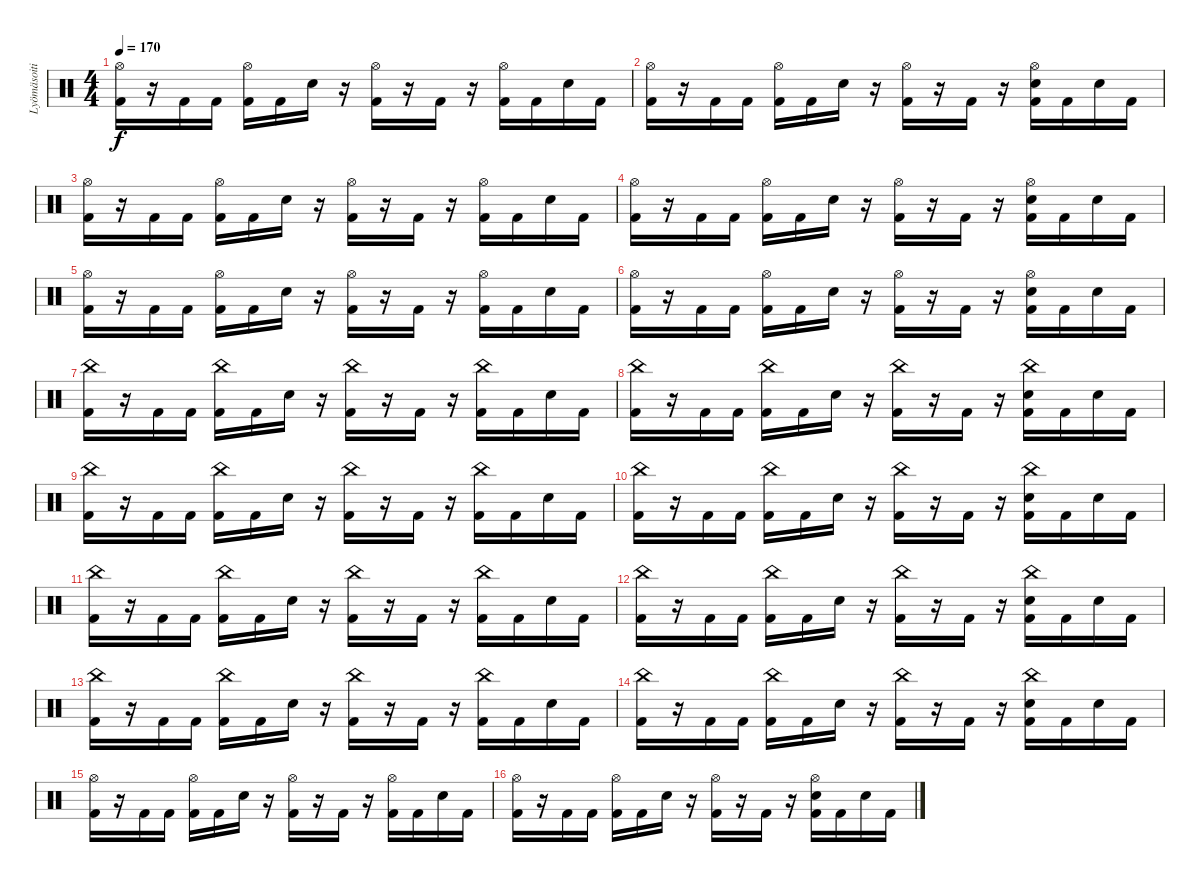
\track ("Lyömäsoitin" "Lyömäsoiti") {instrument percussion}
\staff {score}
\articulation defaults
\ts (4 4)
\tempo 170
\clef neutral
\ks c
("Hi-Hat (open)" "Kick (hit) 2").16{dy f} r.16 "Kick (hit) 2".16 "Kick (hit) 2".16 ("Hi-Hat (open)" "Kick (hit) 2").16 "Kick (hit) 2".16 "Electric Snare (hit)".16 r.16 ("Hi-Hat (open)" "Kick (hit) 2").16 r.16 "Kick (hit) 2".16 r.16 ("Hi-Hat (open)" "Kick (hit) 2").16 "Kick (hit) 2".16 "Electric Snare (hit)".16 "Kick (hit) 2".16 |
("Hi-Hat (open)" "Kick (hit) 2").16 r.16 "Kick (hit) 2".16 "Kick (hit) 2".16 ("Hi-Hat (open)" "Kick (hit) 2").16 "Kick (hit) 2".16 "Electric Snare (hit)".16 r.16 ("Hi-Hat (open)" "Kick (hit) 2").16 r.16 "Kick (hit) 2".16 r.16 ("Hi-Hat (open)" "Electric Snare (hit)" "Kick (hit) 2").16 "Kick (hit) 2".16 "Electric Snare (hit)".16 "Kick (hit) 2".16 |
("Hi-Hat (open)" "Kick (hit) 2").16 r.16 "Kick (hit) 2".16 "Kick (hit) 2".16 ("Hi-Hat (open)" "Kick (hit) 2").16 "Kick (hit) 2".16 "Electric Snare (hit)".16 r.16 ("Hi-Hat (open)" "Kick (hit) 2").16 r.16 "Kick (hit) 2".16 r.16 ("Hi-Hat (open)" "Kick (hit) 2").16 "Kick (hit) 2".16 "Electric Snare (hit)".16 "Kick (hit) 2".16 |
("Hi-Hat (open)" "Kick (hit) 2").16 r.16 "Kick (hit) 2".16 "Kick (hit) 2".16 ("Hi-Hat (open)" "Kick (hit) 2").16 "Kick (hit) 2".16 "Electric Snare (hit)".16 r.16 ("Hi-Hat (open)" "Kick (hit) 2").16 r.16 "Kick (hit) 2".16 r.16 ("Hi-Hat (open)" "Electric Snare (hit)" "Kick (hit) 2").16 "Kick (hit) 2".16 "Electric Snare (hit)".16 "Kick (hit) 2".16 |
("Hi-Hat (open)" "Kick (hit) 2").16 r.16 "Kick (hit) 2".16 "Kick (hit) 2".16 ("Hi-Hat (open)" "Kick (hit) 2").16 "Kick (hit) 2".16 "Electric Snare (hit)".16 r.16 ("Hi-Hat (open)" "Kick (hit) 2").16 r.16 "Kick (hit) 2".16 r.16 ("Hi-Hat (open)" "Kick (hit) 2").16 "Kick (hit) 2".16 "Electric Snare (hit)".16 "Kick (hit) 2".16 |
("Hi-Hat (open)" "Kick (hit) 2").16 r.16 "Kick (hit) 2".16 "Kick (hit) 2".16 ("Hi-Hat (open)" "Kick (hit) 2").16 "Kick (hit) 2".16 "Electric Snare (hit)".16 r.16 ("Hi-Hat (open)" "Kick (hit) 2").16 r.16 "Kick (hit) 2".16 r.16 ("Hi-Hat (open)" "Electric Snare (hit)" "Kick (hit) 2").16 "Kick (hit) 2".16 "Electric Snare (hit)".16 "Kick (hit) 2".16 |
("China (hit)" "Kick (hit) 2").16 r.16 "Kick (hit) 2".16 "Kick (hit) 2".16 ("China (hit)" "Kick (hit) 2").16 "Kick (hit) 2".16 "Electric Snare (hit)".16 r.16 ("China (hit)" "Kick (hit) 2").16 r.16 "Kick (hit) 2".16 r.16 ("China (hit)" "Kick (hit) 2").16 "Kick (hit) 2".16 "Electric Snare (hit)".16 "Kick (hit) 2".16 |
("China (hit)" "Kick (hit) 2").16 r.16 "Kick (hit) 2".16 "Kick (hit) 2".16 ("China (hit)" "Kick (hit) 2").16 "Kick (hit) 2".16 "Electric Snare (hit)".16 r.16 ("China (hit)" "Kick (hit) 2").16 r.16 "Kick (hit) 2".16 r.16 ("China (hit)" "Electric Snare (hit)" "Kick (hit) 2").16 "Kick (hit) 2".16 "Electric Snare (hit)".16 "Kick (hit) 2".16 |
("China (hit)" "Kick (hit) 2").16 r.16 "Kick (hit) 2".16 "Kick (hit) 2".16 ("China (hit)" "Kick (hit) 2").16 "Kick (hit) 2".16 "Electric Snare (hit)".16 r.16 ("China (hit)" "Kick (hit) 2").16 r.16 "Kick (hit) 2".16 r.16 ("China (hit)" "Kick (hit) 2").16 "Kick (hit) 2".16 "Electric Snare (hit)".16 "Kick (hit) 2".16 |
("China (hit)" "Kick (hit) 2").16 r.16 "Kick (hit) 2".16 "Kick (hit) 2".16 ("China (hit)" "Kick (hit) 2").16 "Kick (hit) 2".16 "Electric Snare (hit)".16 r.16 ("China (hit)" "Kick (hit) 2").16 r.16 "Kick (hit) 2".16 r.16 ("China (hit)" "Electric Snare (hit)" "Kick (hit) 2").16 "Kick (hit) 2".16 "Electric Snare (hit)".16 "Kick (hit) 2".16 |
("China (hit)" "Kick (hit) 2").16 r.16 "Kick (hit) 2".16 "Kick (hit) 2".16 ("China (hit)" "Kick (hit) 2").16 "Kick (hit) 2".16 "Electric Snare (hit)".16 r.16 ("China (hit)" "Kick (hit) 2").16 r.16 "Kick (hit) 2".16 r.16 ("China (hit)" "Kick (hit) 2").16 "Kick (hit) 2".16 "Electric Snare (hit)".16 "Kick (hit) 2".16 |
("China (hit)" "Kick (hit) 2").16 r.16 "Kick (hit) 2".16 "Kick (hit) 2".16 ("China (hit)" "Kick (hit) 2").16 "Kick (hit) 2".16 "Electric Snare (hit)".16 r.16 ("China (hit)" "Kick (hit) 2").16 r.16 "Kick (hit) 2".16 r.16 ("China (hit)" "Electric Snare (hit)" "Kick (hit) 2").16 "Kick (hit) 2".16 "Electric Snare (hit)".16 "Kick (hit) 2".16 |
("China (hit)" "Kick (hit) 2").16 r.16 "Kick (hit) 2".16 "Kick (hit) 2".16 ("China (hit)" "Kick (hit) 2").16 "Kick (hit) 2".16 "Electric Snare (hit)".16 r.16 ("China (hit)" "Kick (hit) 2").16 r.16 "Kick (hit) 2".16 r.16 ("China (hit)" "Kick (hit) 2").16 "Kick (hit) 2".16 "Electric Snare (hit)".16 "Kick (hit) 2".16 |
("China (hit)" "Kick (hit) 2").16 r.16 "Kick (hit) 2".16 "Kick (hit) 2".16 ("China (hit)" "Kick (hit) 2").16 "Kick (hit) 2".16 "Electric Snare (hit)".16 r.16 ("China (hit)" "Kick (hit) 2").16 r.16 "Kick (hit) 2".16 r.16 ("China (hit)" "Electric Snare (hit)" "Kick (hit) 2").16 "Kick (hit) 2".16 "Electric Snare (hit)".16 "Kick (hit) 2".16 |
("Hi-Hat (open)" "Kick (hit) 2").16 r.16 "Kick (hit) 2".16 "Kick (hit) 2".16 ("Hi-Hat (open)" "Kick (hit) 2").16 "Kick (hit) 2".16 "Electric Snare (hit)".16 r.16 ("Hi-Hat (open)" "Kick (hit) 2").16 r.16 "Kick (hit) 2".16 r.16 ("Hi-Hat (open)" "Kick (hit) 2").16 "Kick (hit) 2".16 "Electric Snare (hit)".16 "Kick (hit) 2".16 |
("Hi-Hat (open)" "Kick (hit) 2").16 r.16 "Kick (hit) 2".16 "Kick (hit) 2".16 ("Hi-Hat (open)" "Kick (hit) 2").16 "Kick (hit) 2".16 "Electric Snare (hit)".16 r.16 ("Hi-Hat (open)" "Kick (hit) 2").16 r.16 "Kick (hit) 2".16 r.16 ("Hi-Hat (open)" "Electric Snare (hit)" "Kick (hit) 2").16 "Kick (hit) 2".16 "Electric Snare (hit)".16 "Kick (hit) 2".16
